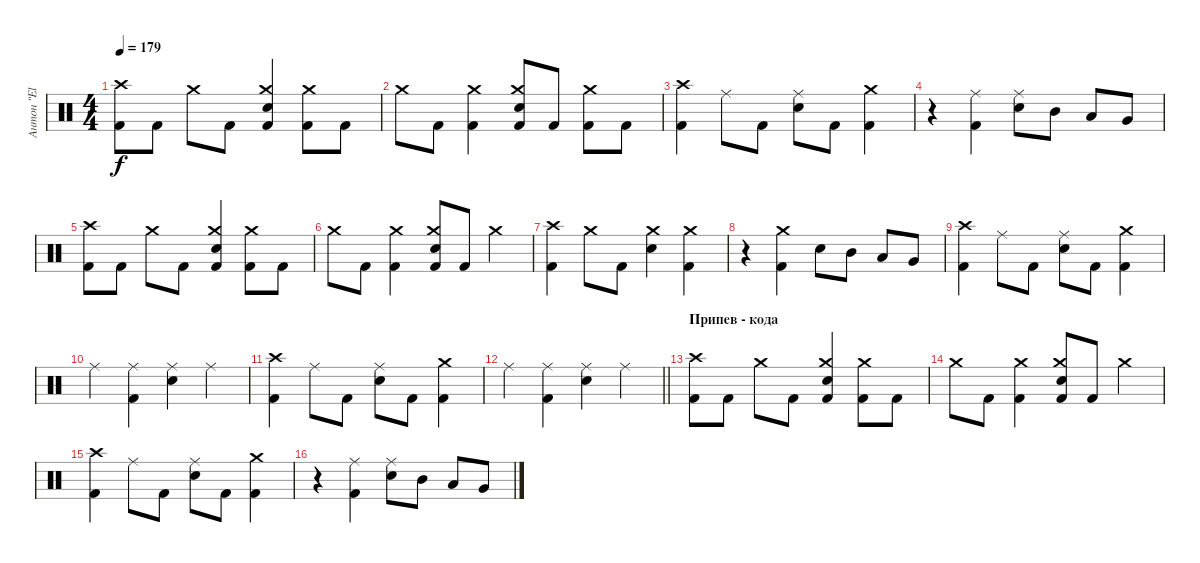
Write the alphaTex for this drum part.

\track ("Антон \"El Bastardo\" Смольянин" "Антон \"El ") {instrument percussion}
\staff {score}
\articulation defaults
\ts (4 4)
\tempo 179
\clef neutral
\ks c
("Crash high (hit)" "Kick (hit) 2").8{dy f} "Kick (hit) 2".8 "Crash medium (hit)".8 "Kick (hit) 2".8 ("Crash medium (hit)" "Electric Snare (hit)" "Kick (hit) 2").4 ("Crash medium (hit)" "Kick (hit) 2").8 "Kick (hit) 2".8 |
"Crash medium (hit)".8 "Kick (hit) 2".8 ("Crash medium (hit)" "Kick (hit) 2").4 ("Crash medium (hit)" "Electric Snare (hit)" "Kick (hit) 2").8 "Kick (hit) 2".8 ("Crash medium (hit)" "Kick (hit) 2").8 "Kick (hit) 2".8 |
("Crash high (hit)" "Kick (hit) 2").4 "Ride (middle)".8 "Kick (hit) 2".8 ("Ride (middle)" "Electric Snare (hit)").8 "Kick (hit) 2".8 ("Crash medium (hit)" "Kick (hit) 2").4 |
r.4 ("Ride (middle)" "Kick (hit) 2").4 ("Ride (middle)" "Electric Snare (hit)").8 "Mid Tom (hit)".8 "Low Tom (hit)".8 "Very Low Tom (hit)".8 |
("Crash high (hit)" "Kick (hit) 2").8 "Kick (hit) 2".8 "Crash medium (hit)".8 "Kick (hit) 2".8 ("Crash medium (hit)" "Electric Snare (hit)" "Kick (hit) 2").4 ("Crash medium (hit)" "Kick (hit) 2").8 "Kick (hit) 2".8 |
"Crash medium (hit)".8 "Kick (hit) 2".8 ("Crash medium (hit)" "Kick (hit) 2").4 ("Crash medium (hit)" "Electric Snare (hit)" "Kick (hit) 2").8 "Kick (hit) 2".8 "Crash medium (hit)".4 |
("Crash high (hit)" "Kick (hit) 2").4 "Crash medium (hit)".8 "Kick (hit) 2".8 ("Crash medium (hit)" "Electric Snare (hit)").4 ("Crash medium (hit)" "Kick (hit) 2").4 |
r.4 ("Crash medium (hit)" "Kick (hit) 2").4 "Electric Snare (hit)".8 "Mid Tom (hit)".8 "Low Tom (hit)".8 "Very Low Tom (hit)".8 |
("Crash high (hit)" "Kick (hit) 2").4 "Ride (middle)".8 "Kick (hit) 2".8 ("Ride (middle)" "Electric Snare (hit)").8 "Kick (hit) 2".8 ("Crash medium (hit)" "Kick (hit) 2").4 |
"Ride (middle)".4 ("Ride (middle)" "Kick (hit) 2").4 ("Ride (middle)" "Electric Snare (hit)").4 "Ride (middle)".4 |
("Crash high (hit)" "Kick (hit) 2").4 "Ride (middle)".8 "Kick (hit) 2".8 ("Ride (middle)" "Electric Snare (hit)").8 "Kick (hit) 2".8 ("Crash medium (hit)" "Kick (hit) 2").4 |
\barLineRight lightlight "Ride (middle)".4
("Ride (middle)" "Kick (hit) 2").4 ("Ride (middle)" "Electric Snare (hit)").4 "Ride (middle)".4 |
\section ("" "Припев - кода")
("Crash high (hit)" "Kick (hit) 2").8 "Kick (hit) 2".8 "Crash medium (hit)".8 "Kick (hit) 2".8 ("Crash medium (hit)" "Electric Snare (hit)" "Kick (hit) 2").4 ("Crash medium (hit)" "Kick (hit) 2").8 "Kick (hit) 2".8 |
"Crash medium (hit)".8 "Kick (hit) 2".8 ("Crash medium (hit)" "Kick (hit) 2").4 ("Crash medium (hit)" "Electric Snare (hit)" "Kick (hit) 2").8 "Kick (hit) 2".8 "Crash medium (hit)".4 |
("Crash high (hit)" "Kick (hit) 2").4 "Ride (middle)".8 "Kick (hit) 2".8 ("Ride (middle)" "Electric Snare (hit)").8 "Kick (hit) 2".8 ("Crash medium (hit)" "Kick (hit) 2").4 |
r.4 ("Ride (middle)" "Kick (hit) 2").4 ("Ride (middle)" "Electric Snare (hit)").8 "Mid Tom (hit)".8 "Low Tom (hit)".8 "Very Low Tom (hit)".8
